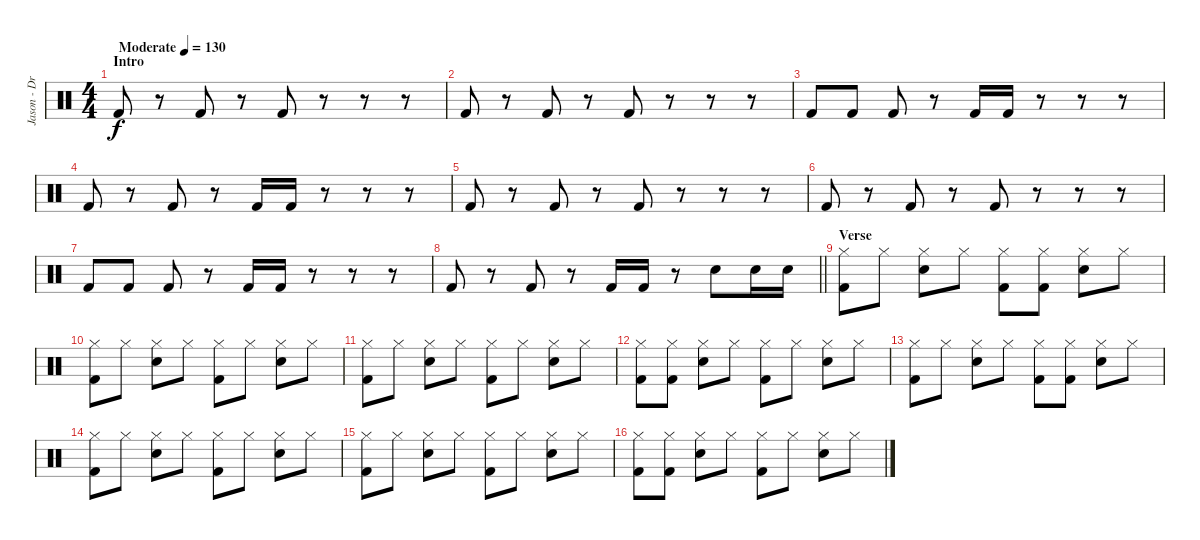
\track ("Jason - Drums" "Jason - Dr") {instrument percussion}
\staff {score}
\articulation defaults
\ts (4 4)
\section ("" "Intro")
\tempo (130 "Moderate")
\clef neutral
\ks c "Kick (hit) 2".8{dy f}
r.8 "Kick (hit) 2".8 r.8 "Kick (hit) 2".8 r.8 r.8 r.8 |
"Kick (hit) 2".8 r.8 "Kick (hit) 2".8 r.8 "Kick (hit) 2".8 r.8 r.8 r.8 |
"Kick (hit) 2".8 "Kick (hit) 2".8 "Kick (hit) 2".8 r.8 "Kick (hit) 2".16 "Kick (hit) 2".16 r.8 r.8 r.8 |
"Kick (hit) 2".8 r.8 "Kick (hit) 2".8 r.8 "Kick (hit) 2".16 "Kick (hit) 2".16 r.8 r.8 r.8 |
"Kick (hit) 2".8 r.8 "Kick (hit) 2".8 r.8 "Kick (hit) 2".8 r.8 r.8 r.8 |
"Kick (hit) 2".8 r.8 "Kick (hit) 2".8 r.8 "Kick (hit) 2".8 r.8 r.8 r.8 |
"Kick (hit) 2".8 "Kick (hit) 2".8 "Kick (hit) 2".8 r.8 "Kick (hit) 2".16 "Kick (hit) 2".16 r.8 r.8 r.8 |
\barLineRight lightlight "Kick (hit) 2".8
r.8 "Kick (hit) 2".8 r.8 "Kick (hit) 2".16 "Kick (hit) 2".16 r.8 "Snare (hit) 2".8 "Snare (hit) 2".16 "Snare (hit) 2".16 |
\section ("" "Verse")
("Hi-Hat (closed)" "Kick (hit) 2").8 "Hi-Hat (closed)".8 ("Hi-Hat (closed)" "Snare (hit) 2").8 "Hi-Hat (closed)".8 ("Hi-Hat (closed)" "Kick (hit) 2").8 ("Hi-Hat (closed)" "Kick (hit) 2").8 ("Hi-Hat (closed)" "Snare (hit) 2").8 "Hi-Hat (closed)".8 |
("Hi-Hat (closed)" "Kick (hit) 2").8 "Hi-Hat (closed)".8 ("Hi-Hat (closed)" "Snare (hit) 2").8 "Hi-Hat (closed)".8 ("Hi-Hat (closed)" "Kick (hit) 2").8 "Hi-Hat (closed)".8 ("Hi-Hat (closed)" "Snare (hit) 2").8 "Hi-Hat (closed)".8 |
("Hi-Hat (closed)" "Kick (hit) 2").8 "Hi-Hat (closed)".8 ("Hi-Hat (closed)" "Snare (hit) 2").8 "Hi-Hat (closed)".8 ("Hi-Hat (closed)" "Kick (hit) 2").8 "Hi-Hat (closed)".8 ("Hi-Hat (closed)" "Snare (hit) 2").8 "Hi-Hat (closed)".8 |
("Hi-Hat (closed)" "Kick (hit) 2").8 ("Hi-Hat (closed)" "Kick (hit) 2").8 ("Hi-Hat (closed)" "Snare (hit) 2").8 "Hi-Hat (closed)".8 ("Hi-Hat (closed)" "Kick (hit) 2").8 "Hi-Hat (closed)".8 ("Hi-Hat (closed)" "Snare (hit) 2").8 "Hi-Hat (closed)".8 |
("Hi-Hat (closed)" "Kick (hit) 2").8 "Hi-Hat (closed)".8 ("Hi-Hat (closed)" "Snare (hit) 2").8 "Hi-Hat (closed)".8 ("Hi-Hat (closed)" "Kick (hit) 2").8 ("Hi-Hat (closed)" "Kick (hit) 2").8 ("Hi-Hat (closed)" "Snare (hit) 2").8 "Hi-Hat (closed)".8 |
("Hi-Hat (closed)" "Kick (hit) 2").8 "Hi-Hat (closed)".8 ("Hi-Hat (closed)" "Snare (hit) 2").8 "Hi-Hat (closed)".8 ("Hi-Hat (closed)" "Kick (hit) 2").8 "Hi-Hat (closed)".8 ("Hi-Hat (closed)" "Snare (hit) 2").8 "Hi-Hat (closed)".8 |
("Hi-Hat (closed)" "Kick (hit) 2").8 "Hi-Hat (closed)".8 ("Hi-Hat (closed)" "Snare (hit) 2").8 "Hi-Hat (closed)".8 ("Hi-Hat (closed)" "Kick (hit) 2").8 "Hi-Hat (closed)".8 ("Hi-Hat (closed)" "Snare (hit) 2").8 "Hi-Hat (closed)".8 |
("Hi-Hat (closed)" "Kick (hit) 2").8 ("Hi-Hat (closed)" "Kick (hit) 2").8 ("Hi-Hat (closed)" "Snare (hit) 2").8 "Hi-Hat (closed)".8 ("Hi-Hat (closed)" "Kick (hit) 2").8 "Hi-Hat (closed)".8 ("Hi-Hat (closed)" "Snare (hit) 2").8 "Hi-Hat (closed)".8
